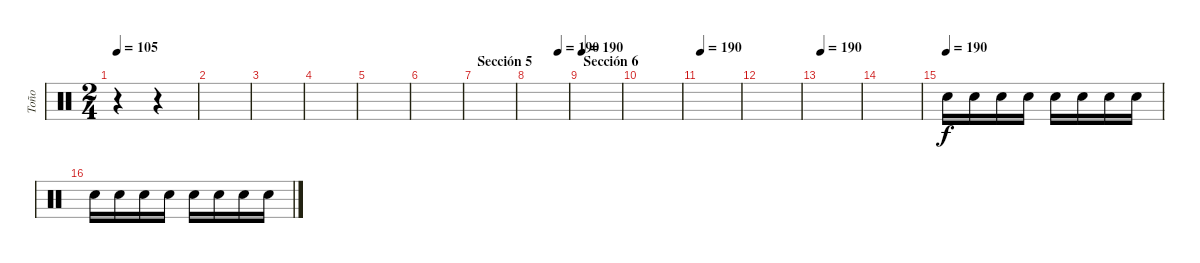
\track ("Toño" "Toño") {instrument percussion}
\staff {score}
\articulation defaults
\ts (2 4)
\tempo 105
\clef neutral
\ks c
r.4{dy f} r.4 |
|
|
|
|
|
\section ("" "Sección 5")
|
\tempo (190 0.75)
|
\section ("" "Sección 6")
\tempo 190
|
|
\tempo 190
|
|
\tempo 190
|
|
\tempo (190)
"Electric Snare (hit)".16 "Electric Snare (hit)".16 "Electric Snare (hit)".16 "Electric Snare (hit)".16 "Electric Snare (hit)".16 "Electric Snare (hit)".16 "Electric Snare (hit)".16 "Electric Snare (hit)".16 |
"Electric Snare (hit)".16 "Electric Snare (hit)".16 "Electric Snare (hit)".16 "Electric Snare (hit)".16 "Electric Snare (hit)".16 "Electric Snare (hit)".16 "Electric Snare (hit)".16 "Electric Snare (hit)".16
